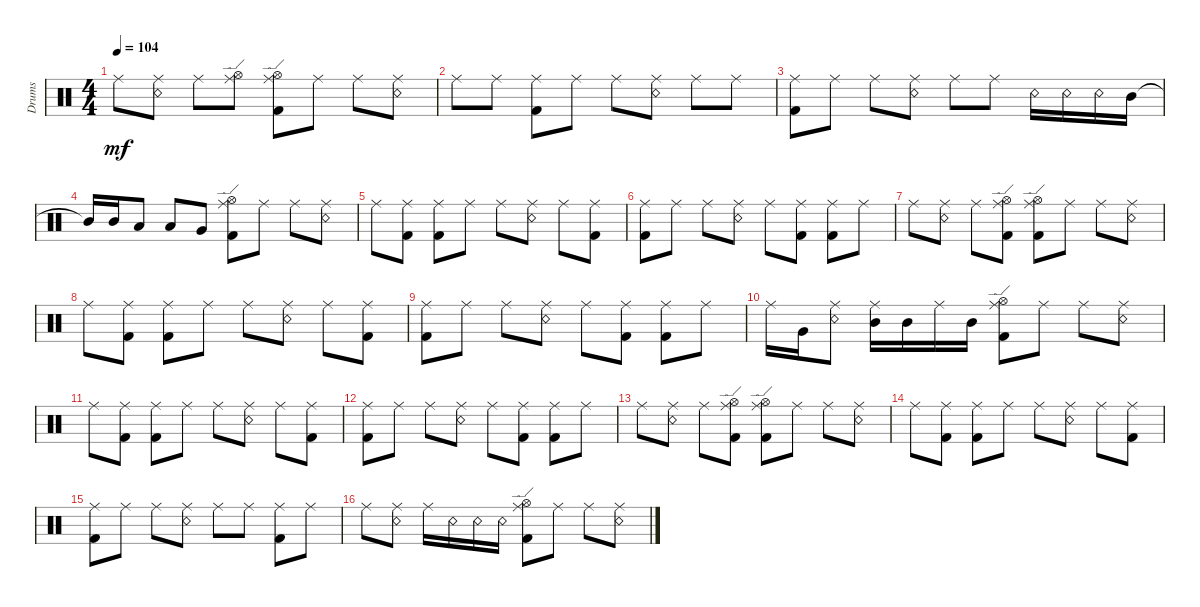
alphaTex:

\defaultSystemsLayout 4
\bracketExtendMode groupsimilarinstruments
\otherSystemsTrackNameOrientation horizontal
\track ("Martin Lopez" "Drums") {instrument percussion}
\staff {score}
\articulation defaults
\ts (4 4)
\tempo 104
\clef neutral
\ks c "Ride (middle)".8{dy mf beam Down}
("Ride (middle)" "Snare (rim shot)").8{beam Down} "Ride (middle)".8{beam Down} ("Ride (edge)" "Hi-Hat (open)").8{beam Down} ("Ride (edge)" "Hi-Hat (open)" "Kick (hit) 2").8{beam Down} "Ride (middle)".8{beam Down} "Ride (middle)".8{beam Down} ("Ride (middle)" "Snare (rim shot)").8{beam Down} |
"Ride (middle)".8{beam Down} "Ride (middle)".8{beam Down} ("Ride (middle)" "Kick (hit) 2").8{beam Down} "Ride (middle)".8{beam Down} "Ride (middle)".8{beam Down} ("Ride (middle)" "Snare (rim shot)").8{beam Down} "Ride (middle)".8{beam Down} "Ride (middle)".8{beam Down} |
("Ride (middle)" "Kick (hit) 2").8{beam Down} "Ride (middle)".8{beam Down} "Ride (middle)".8{beam Down} ("Ride (middle)" "Snare (rim shot)").8{beam Down} "Ride (middle)".8{beam Down} "Ride (middle)".8{beam Down} "Snare (rim shot)".16{beam Down} "Snare (rim shot)".16{beam Down} "Snare (rim shot)".16{beam Down} "Mid Tom (hit)".16{beam Down} |
"Mid Tom (hit)"{t}.16{beam Up} "Mid Tom (hit)".16{beam Up} "Low Tom (hit)".8{beam Up} "Low Tom (hit)".8{beam Up} "Very Low Tom (hit)".8{beam Up} ("Ride (edge)" "Hi-Hat (open)" "Kick (hit) 2").8{beam Down} "Ride (middle)".8{beam Down} "Ride (middle)".8{beam Down} ("Ride (middle)" "Snare (rim shot)").8{beam Down} |
"Ride (middle)".8{beam Down} ("Ride (middle)" "Kick (hit) 2").8{beam Down} ("Ride (middle)" "Kick (hit) 2").8{beam Down} "Ride (middle)".8{beam Down} "Ride (middle)".8{beam Down} ("Ride (middle)" "Snare (rim shot)").8{beam Down} "Ride (middle)".8{beam Down} ("Ride (middle)" "Kick (hit) 2").8{beam Down} |
("Ride (middle)" "Kick (hit) 2").8{beam Down} "Ride (middle)".8{beam Down} "Ride (middle)".8{beam Down} ("Ride (middle)" "Snare (rim shot)").8{beam Down} "Ride (middle)".8{beam Down} ("Ride (middle)" "Kick (hit) 2").8{beam Down} ("Ride (middle)" "Kick (hit) 2").8{beam Down} "Ride (middle)".8{beam Down} |
"Ride (middle)".8{beam Down} ("Ride (middle)" "Snare (rim shot)").8{beam Down} "Ride (middle)".8{beam Down} ("Ride (edge)" "Kick (hit) 2" "Hi-Hat (open)").8{beam Down} ("Ride (edge)" "Hi-Hat (open)" "Kick (hit) 2").8{beam Down} "Ride (middle)".8{beam Down} "Ride (middle)".8{beam Down} ("Ride (middle)" "Snare (rim shot)").8{beam Down} |
"Ride (middle)".8{beam Down} ("Ride (middle)" "Kick (hit) 2").8{beam Down} ("Ride (middle)" "Kick (hit) 2").8{beam Down} "Ride (middle)".8{beam Down} "Ride (middle)".8{beam Down} ("Ride (middle)" "Snare (rim shot)").8{beam Down} "Ride (middle)".8{beam Down} ("Ride (middle)" "Kick (hit) 2").8{beam Down} |
("Ride (middle)" "Kick (hit) 2").8{beam Down} "Ride (middle)".8{beam Down} "Ride (middle)".8{beam Down} ("Ride (middle)" "Snare (rim shot)").8{beam Down} "Ride (middle)".8{beam Down} ("Ride (middle)" "Kick (hit) 2").8{beam Down} ("Ride (middle)" "Kick (hit) 2").8{beam Down} "Ride (middle)".8{beam Down} |
"Ride (middle)".16{beam Down} "Very Low Tom (hit)".16{beam Down} ("Ride (middle)" "Snare (rim shot)").8{beam Down} ("Ride (middle)" "Mid Tom (hit)").16{beam Down} "Mid Tom (hit)".16{beam Down} "Ride (middle)".16{beam Down} "Mid Tom (hit)".16{beam Down} ("Ride (edge)" "Hi-Hat (open)" "Kick (hit) 2").8{beam Down} "Ride (middle)".8{beam Down} "Ride (middle)".8{beam Down} ("Ride (middle)" "Snare (rim shot)").8{beam Down} |
"Ride (middle)".8{beam Down} ("Ride (middle)" "Kick (hit) 2").8{beam Down} ("Ride (middle)" "Kick (hit) 2").8{beam Down} "Ride (middle)".8{beam Down} "Ride (middle)".8{beam Down} ("Ride (middle)" "Snare (rim shot)").8{beam Down} "Ride (middle)".8{beam Down} ("Ride (middle)" "Kick (hit) 2").8{beam Down} |
("Ride (middle)" "Kick (hit) 2").8{beam Down} "Ride (middle)".8{beam Down} "Ride (middle)".8{beam Down} ("Ride (middle)" "Snare (rim shot)").8{beam Down} "Ride (middle)".8{beam Down} ("Ride (middle)" "Kick (hit) 2").8{beam Down} ("Ride (middle)" "Kick (hit) 2").8{beam Down} "Ride (middle)".8{beam Down} |
"Ride (middle)".8{beam Down} ("Ride (middle)" "Snare (rim shot)").8{beam Down} "Ride (middle)".8{beam Down} ("Ride (edge)" "Hi-Hat (open)" "Kick (hit) 2").8{beam Down} ("Ride (edge)" "Hi-Hat (open)" "Kick (hit) 2").8{beam Down} "Ride (middle)".8{beam Down} "Ride (middle)".8{beam Down} ("Ride (middle)" "Snare (rim shot)").8{beam Down} |
"Ride (middle)".8{beam Down} ("Ride (middle)" "Kick (hit) 2").8{beam Down} ("Ride (middle)" "Kick (hit) 2").8{beam Down} "Ride (middle)".8{beam Down} "Ride (middle)".8{beam Down} ("Ride (middle)" "Snare (rim shot)").8{beam Down} "Ride (middle)".8{beam Down} ("Ride (middle)" "Kick (hit) 2").8{beam Down} |
("Ride (middle)" "Kick (hit) 2").8{beam Down} "Ride (middle)".8{beam Down} "Ride (middle)".8{beam Down} ("Ride (middle)" "Snare (rim shot)").8{beam Down} "Ride (middle)".8{beam Down} "Ride (middle)".8{beam Down} ("Ride (middle)" "Kick (hit) 2").8{beam Down} "Ride (middle)".8{beam Down} |
"Ride (middle)".8{beam Down} ("Ride (middle)" "Snare (rim shot)").8{beam Down} "Ride (middle)".16{beam Down} "Snare (rim shot)".16{beam Down} "Snare (rim shot)".16{beam Down} "Snare (rim shot)".16{beam Down} ("Ride (edge)" "Hi-Hat (open)" "Kick (hit) 2").8{beam Down} "Ride (middle)".8{beam Down} "Ride (middle)".8{beam Down} ("Ride (middle)" "Snare (rim shot)").8{beam Down}
